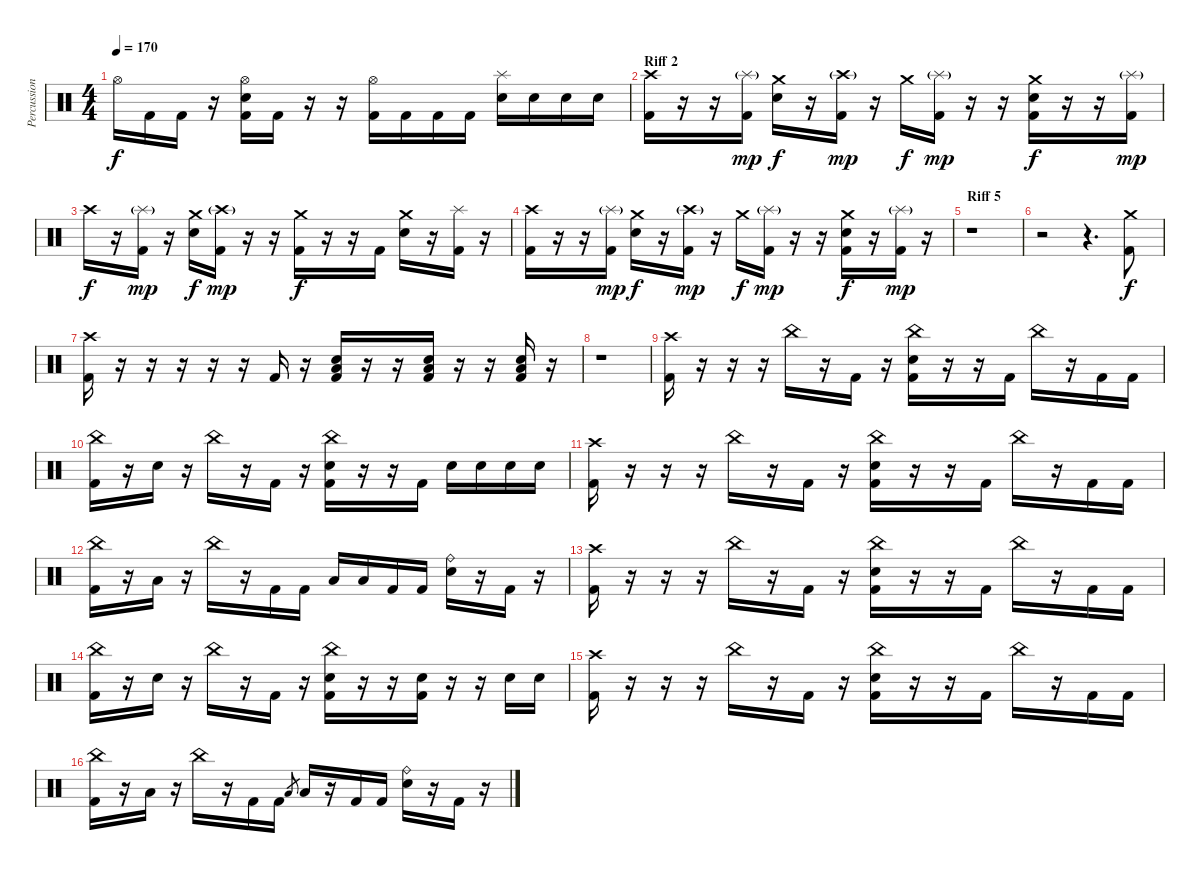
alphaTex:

\track ("Percussion" "Percussion") {instrument percussion}
\staff {score}
\articulation defaults
\ts (4 4)
\tempo 170
\clef neutral
\ks c "Hi-Hat (open)".16{dy f} "Kick (hit) 2".16 "Kick (hit) 2".16
r.16 ("Hi-Hat (open)" "Electric Snare (hit)" "Kick (hit) 2").16 "Kick (hit) 2".16 r.16 r.16 ("Hi-Hat (open)" "Kick (hit) 2").16 "Kick (hit) 2".16 "Kick (hit) 2".16 "Kick (hit) 2".16 ("Splash (hit)" "Electric Snare (hit)").16 "Electric Snare (hit)".16 "Electric Snare (hit)".16 "Electric Snare (hit)".16 |
\section ("" "Riff 2")
("Crash high (hit)" "Kick (hit) 2").16 r.16 r.16 ("Splash (hit)"{g} "Kick (hit) 2").16{dy mp} ("Crash medium (hit)" "Electric Snare (hit)").16{dy f} r.16 ("Crash high (hit)"{g} "Kick (hit) 2").16{dy mp} r.16 "Crash medium (hit)".16{dy f} ("Splash (hit)"{g} "Kick (hit) 2").16{dy mp} r.16 r.16 ("Crash medium (hit)" "Electric Snare (hit)" "Kick (hit) 2").16{dy f} r.16 r.16 ("Splash (hit)"{g} "Kick (hit) 2").16{dy mp} |
"Crash high (hit)".16{dy f} r.16 ("Splash (hit)"{g} "Kick (hit) 2").16{dy mp} r.16 ("Crash medium (hit)" "Electric Snare (hit)").16{dy f} ("Crash high (hit)"{g} "Kick (hit) 2").16{dy mp} r.16 r.16 ("Crash medium (hit)" "Kick (hit) 2").16{dy f} r.16 r.16 "Kick (hit) 2".16 ("Crash medium (hit)" "Electric Snare (hit)").16 r.16 ("Splash (hit)" "Kick (hit) 2").16 r.16 |
("Crash high (hit)" "Kick (hit) 2").16 r.16 r.16 ("Splash (hit)"{g} "Kick (hit) 2").16{dy mp} ("Crash medium (hit)" "Electric Snare (hit)").16{dy f} r.16 ("Crash high (hit)"{g} "Kick (hit) 2").16{dy mp} r.16 "Crash medium (hit)".16{dy f} ("Splash (hit)"{g} "Kick (hit) 2").16{dy mp} r.16 r.16 ("Crash medium (hit)" "Electric Snare (hit)" "Kick (hit) 2").16{dy f} r.16 ("Splash (hit)"{g} "Kick (hit) 2").16{dy mp} r.16 |
\section ("" "Riff 5")
r.1 |
r.2 r.4{d} ("Crash medium (hit)" "Kick (hit) 2").8{dy f} |
("Crash high (hit)" "Kick (hit) 2").16 r.16 r.16 r.16 r.16 r.16 "Kick (hit) 2".16 r.16 ("Electric Snare (hit)" "Low Floor Tom (hit)" "Kick (hit) 2").16 r.16 r.16 ("Electric Snare (hit)" "Low Floor Tom (hit)" "Kick (hit) 2").16 r.16 r.16 ("Electric Snare (hit)" "Low Floor Tom (hit)" "Kick (hit) 2").16 r.16 |
r.1 |
("Crash high (hit)" "Kick (hit) 2").16 r.16 r.16 r.16 "China (hit)".16 r.16 "Kick (hit) 2".16 r.16 ("China (hit)" "Electric Snare (hit)" "Kick (hit) 2").16 r.16 r.16 "Kick (hit) 2".16 "China (hit)".16 r.16 "Kick (hit) 2".16 "Kick (hit) 2".16 |
("China (hit)" "Kick (hit) 2").16 r.16 "Electric Snare (hit)".16 r.16 "China (hit)".16 r.16 "Kick (hit) 2".16 r.16 ("China (hit)" "Electric Snare (hit)" "Kick (hit) 2").16 r.16 r.16 "Kick (hit) 2".16 "Electric Snare (hit)".16 "Electric Snare (hit)".16 "Electric Snare (hit)".16 "Electric Snare (hit)".16 |
("Crash high (hit)" "Kick (hit) 2").16 r.16 r.16 r.16 "China (hit)".16 r.16 "Kick (hit) 2".16 r.16 ("China (hit)" "Electric Snare (hit)" "Kick (hit) 2").16 r.16 r.16 "Kick (hit) 2".16 "China (hit)".16 r.16 "Kick (hit) 2".16 "Kick (hit) 2".16 |
("China (hit)" "Kick (hit) 2").16 r.16 "Low Tom (hit)".16 r.16 "China (hit)".16 r.16 "Kick (hit) 2".16 "Kick (hit) 2".16 "Low Tom (hit)".16 "Low Tom (hit)".16 "Kick (hit) 2".16 "Kick (hit) 2".16 ("Ride (bell)" "Electric Snare (hit)").16 r.16 "Kick (hit) 2".16 r.16 |
("Crash high (hit)" "Kick (hit) 2").16 r.16 r.16 r.16 "China (hit)".16 r.16 "Kick (hit) 2".16 r.16 ("China (hit)" "Electric Snare (hit)" "Kick (hit) 2").16 r.16 r.16 "Kick (hit) 2".16 "China (hit)".16 r.16 "Kick (hit) 2".16 "Kick (hit) 2".16 |
("China (hit)" "Kick (hit) 2").16 r.16 "Electric Snare (hit)".16 r.16 "China (hit)".16 r.16 "Kick (hit) 2".16 r.16 ("China (hit)" "Electric Snare (hit)" "Kick (hit) 2").16 r.16 r.16 ("Electric Snare (hit)" "Kick (hit) 2").16 r.16 r.16 "Electric Snare (hit)".16 "Electric Snare (hit)".16 |
("Crash high (hit)" "Kick (hit) 2").16 r.16 r.16 r.16 "China (hit)".16 r.16 "Kick (hit) 2".16 r.16 ("China (hit)" "Electric Snare (hit)" "Kick (hit) 2").16 r.16 r.16 "Kick (hit) 2".16 "China (hit)".16 r.16 "Kick (hit) 2".16 "Kick (hit) 2".16 |
("China (hit)" "Kick (hit) 2").16 r.16 "Low Tom (hit)".16 r.16 "China (hit)".16 r.16 "Kick (hit) 2".16 "Kick (hit) 2".16 "Low Tom (hit)".8{gr} "Low Tom (hit)".16 r.16 "Kick (hit) 2".16 "Kick (hit) 2".16 ("Ride (bell)" "Electric Snare (hit)").16 r.16 "Kick (hit) 2".16 r.16
